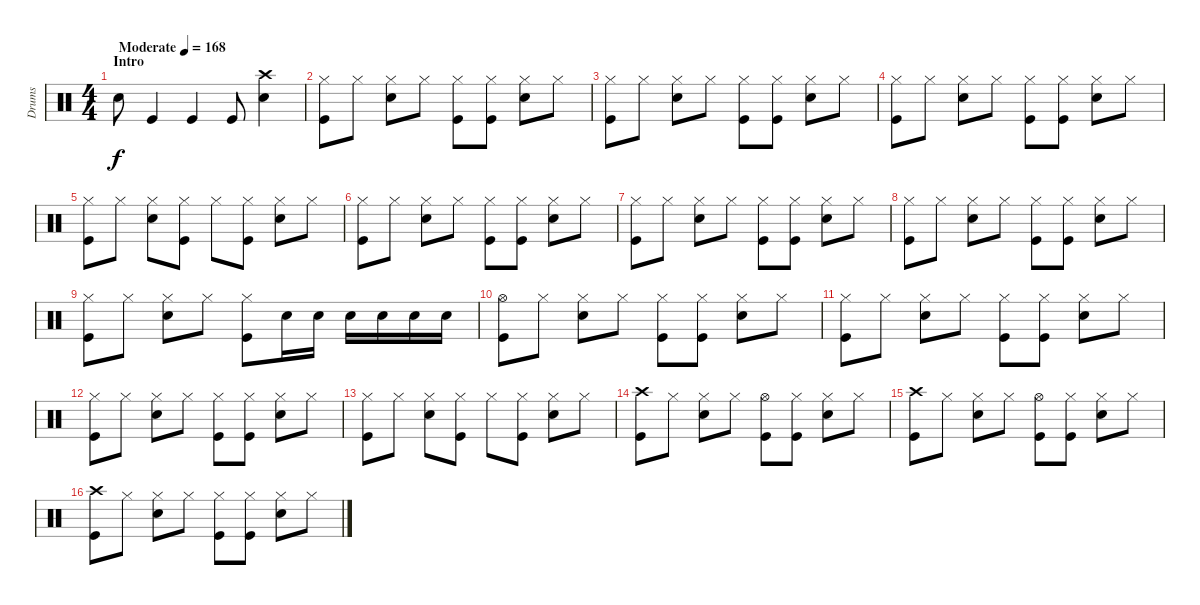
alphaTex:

\track ("Drums" "Drums") {instrument percussion}
\staff {score}
\articulation defaults
\ts (4 4)
\section ("" "Intro")
\tempo (168 "Moderate")
\clef neutral
\ks c "Snare (hit) 2".8{dy f} "Kick (hit)".4 "Kick (hit)".4 "Kick (hit)".8
("Crash high (hit)" "Snare (hit) 2").4 |
("Hi-Hat (closed)" "Kick (hit)").8 "Hi-Hat (closed)".8 ("Hi-Hat (closed)" "Snare (hit) 2").8 "Hi-Hat (closed)".8 ("Hi-Hat (closed)" "Kick (hit)").8 ("Hi-Hat (closed)" "Kick (hit)").8 ("Hi-Hat (closed)" "Snare (hit) 2").8 "Hi-Hat (closed)".8 |
("Hi-Hat (closed)" "Kick (hit)").8 "Hi-Hat (closed)".8 ("Hi-Hat (closed)" "Snare (hit) 2").8 "Hi-Hat (closed)".8 ("Hi-Hat (closed)" "Kick (hit)").8 ("Hi-Hat (closed)" "Kick (hit)").8 ("Hi-Hat (closed)" "Snare (hit) 2").8 "Hi-Hat (closed)".8 |
("Hi-Hat (closed)" "Kick (hit)").8 "Hi-Hat (closed)".8 ("Hi-Hat (closed)" "Snare (hit) 2").8 "Hi-Hat (closed)".8 ("Hi-Hat (closed)" "Kick (hit)").8 ("Hi-Hat (closed)" "Kick (hit)").8 ("Hi-Hat (closed)" "Snare (hit) 2").8 "Hi-Hat (closed)".8 |
("Hi-Hat (closed)" "Kick (hit)").8 "Hi-Hat (closed)".8 ("Hi-Hat (closed)" "Snare (hit) 2").8 ("Hi-Hat (closed)" "Kick (hit)").8 "Hi-Hat (closed)".8 ("Hi-Hat (closed)" "Kick (hit)").8 ("Hi-Hat (closed)" "Snare (hit) 2").8 "Hi-Hat (closed)".8 |
("Hi-Hat (closed)" "Kick (hit)").8 "Hi-Hat (closed)".8 ("Hi-Hat (closed)" "Snare (hit) 2").8 "Hi-Hat (closed)".8 ("Hi-Hat (closed)" "Kick (hit)").8 ("Hi-Hat (closed)" "Kick (hit)").8 ("Hi-Hat (closed)" "Snare (hit) 2").8 "Hi-Hat (closed)".8 |
("Hi-Hat (closed)" "Kick (hit)").8 "Hi-Hat (closed)".8 ("Hi-Hat (closed)" "Snare (hit) 2").8 "Hi-Hat (closed)".8 ("Hi-Hat (closed)" "Kick (hit)").8 ("Hi-Hat (closed)" "Kick (hit)").8 ("Hi-Hat (closed)" "Snare (hit) 2").8 "Hi-Hat (closed)".8 |
("Hi-Hat (closed)" "Kick (hit)").8 "Hi-Hat (closed)".8 ("Hi-Hat (closed)" "Snare (hit) 2").8 "Hi-Hat (closed)".8 ("Hi-Hat (closed)" "Kick (hit)").8 ("Hi-Hat (closed)" "Kick (hit)").8 ("Hi-Hat (closed)" "Snare (hit) 2").8 "Hi-Hat (closed)".8 |
("Hi-Hat (closed)" "Kick (hit)").8 "Hi-Hat (closed)".8 ("Hi-Hat (closed)" "Snare (hit) 2").8 "Hi-Hat (closed)".8 ("Hi-Hat (closed)" "Kick (hit)").8 "Snare (hit) 2".16 "Snare (hit) 2".16 "Snare (hit) 2".16 "Snare (hit) 2".16 "Snare (hit) 2".16 "Snare (hit) 2".16 |
("Hi-Hat (open)" "Kick (hit)").8 "Hi-Hat (closed)".8 ("Hi-Hat (closed)" "Snare (hit) 2").8 "Hi-Hat (closed)".8 ("Hi-Hat (closed)" "Kick (hit)").8 ("Hi-Hat (closed)" "Kick (hit)").8 ("Hi-Hat (closed)" "Snare (hit) 2").8 "Hi-Hat (closed)".8 |
("Hi-Hat (closed)" "Kick (hit)").8 "Hi-Hat (closed)".8 ("Hi-Hat (closed)" "Snare (hit) 2").8 "Hi-Hat (closed)".8 ("Hi-Hat (closed)" "Kick (hit)").8 ("Hi-Hat (closed)" "Kick (hit)").8 ("Hi-Hat (closed)" "Snare (hit) 2").8 "Hi-Hat (closed)".8 |
("Hi-Hat (closed)" "Kick (hit)").8 "Hi-Hat (closed)".8 ("Hi-Hat (closed)" "Snare (hit) 2").8 "Hi-Hat (closed)".8 ("Hi-Hat (closed)" "Kick (hit)").8 ("Hi-Hat (closed)" "Kick (hit)").8 ("Hi-Hat (closed)" "Snare (hit) 2").8 "Hi-Hat (closed)".8 |
("Hi-Hat (closed)" "Kick (hit)").8 "Hi-Hat (closed)".8 ("Hi-Hat (closed)" "Snare (hit) 2").8 ("Hi-Hat (closed)" "Kick (hit)").8 "Hi-Hat (closed)".8 ("Hi-Hat (closed)" "Kick (hit)").8 ("Hi-Hat (closed)" "Snare (hit) 2").8 "Hi-Hat (closed)".8 |
("Crash high (hit)" "Kick (hit)").8 "Hi-Hat (closed)".8 ("Hi-Hat (closed)" "Snare (hit) 2").8 "Hi-Hat (closed)".8 ("Hi-Hat (open)" "Kick (hit)").8 ("Hi-Hat (closed)" "Kick (hit)").8 ("Hi-Hat (closed)" "Snare (hit) 2").8 "Hi-Hat (closed)".8 |
("Crash high (hit)" "Kick (hit)").8 "Hi-Hat (closed)".8 ("Hi-Hat (closed)" "Snare (hit) 2").8 "Hi-Hat (closed)".8 ("Hi-Hat (open)" "Kick (hit)").8 ("Hi-Hat (closed)" "Kick (hit)").8 ("Hi-Hat (closed)" "Snare (hit) 2").8 "Hi-Hat (closed)".8 |
("Crash high (hit)" "Kick (hit)").8 "Hi-Hat (closed)".8 ("Hi-Hat (closed)" "Snare (hit) 2").8 "Hi-Hat (closed)".8 ("Hi-Hat (closed)" "Kick (hit)").8 ("Hi-Hat (closed)" "Kick (hit)").8 ("Hi-Hat (closed)" "Snare (hit) 2").8 "Hi-Hat (closed)".8
